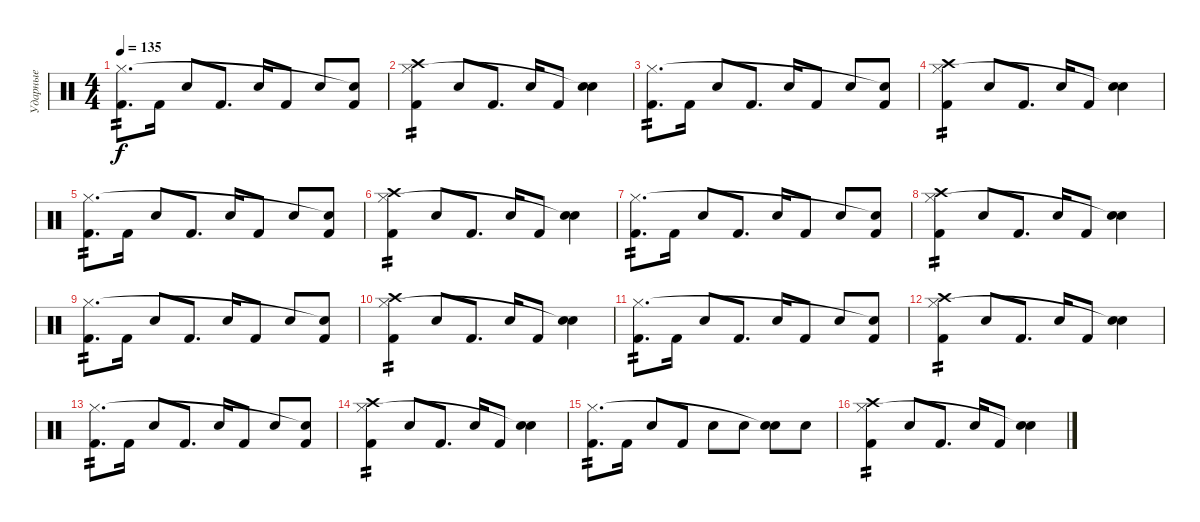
\track ("Ударные" "Ударные") {instrument percussion}
\staff {score}
\articulation defaults
\ts (4 4)
\tempo 135
\clef neutral
\ks c
("Kick (hit) 2" "Hi-Hat (closed)").8{d tp 2 dy f} "Kick (hit) 2".16 "Electric Snare (hit)".8 "Kick (hit) 2".8{d} "Electric Snare (hit)".16 "Kick (hit) 2".8 "Electric Snare (hit)".8 ("Kick (hit) 2" "Snare (hit)"{t}).8 |
("Kick (hit) 2" "Hi-Hat (closed)" "Crash high (hit)").4{tp 2} "Electric Snare (hit)".8 "Kick (hit) 2".8{d} "Electric Snare (hit)".16 "Kick (hit) 2".8 ("Electric Snare (hit)" "Snare (hit)"{t}).4 |
("Kick (hit) 2" "Hi-Hat (closed)").8{d tp 2} "Kick (hit) 2".16 "Electric Snare (hit)".8 "Kick (hit) 2".8{d} "Electric Snare (hit)".16 "Kick (hit) 2".8 "Electric Snare (hit)".8 ("Kick (hit) 2" "Snare (hit)"{t}).8 |
("Kick (hit) 2" "Hi-Hat (closed)" "Crash high (hit)").4{tp 2} "Electric Snare (hit)".8 "Kick (hit) 2".8{d} "Electric Snare (hit)".16 "Kick (hit) 2".8 ("Electric Snare (hit)" "Snare (hit)"{t}).4 |
("Kick (hit) 2" "Hi-Hat (closed)").8{d tp 2} "Kick (hit) 2".16 "Electric Snare (hit)".8 "Kick (hit) 2".8{d} "Electric Snare (hit)".16 "Kick (hit) 2".8 "Electric Snare (hit)".8 ("Kick (hit) 2" "Snare (hit)"{t}).8 |
("Kick (hit) 2" "Hi-Hat (closed)" "Crash high (hit)").4{tp 2} "Electric Snare (hit)".8 "Kick (hit) 2".8{d} "Electric Snare (hit)".16 "Kick (hit) 2".8 ("Electric Snare (hit)" "Snare (hit)"{t}).4 |
("Kick (hit) 2" "Hi-Hat (closed)").8{d tp 2} "Kick (hit) 2".16 "Electric Snare (hit)".8 "Kick (hit) 2".8{d} "Electric Snare (hit)".16 "Kick (hit) 2".8 "Electric Snare (hit)".8 ("Kick (hit) 2" "Snare (hit)"{t}).8 |
("Kick (hit) 2" "Hi-Hat (closed)" "Crash high (hit)").4{tp 2} "Electric Snare (hit)".8 "Kick (hit) 2".8{d} "Electric Snare (hit)".16 "Kick (hit) 2".8 ("Electric Snare (hit)" "Snare (hit)"{t}).4 |
("Kick (hit) 2" "Hi-Hat (closed)").8{d tp 2} "Kick (hit) 2".16 "Electric Snare (hit)".8 "Kick (hit) 2".8{d} "Electric Snare (hit)".16 "Kick (hit) 2".8 "Electric Snare (hit)".8 ("Kick (hit) 2" "Snare (hit)"{t}).8 |
("Kick (hit) 2" "Hi-Hat (closed)" "Crash high (hit)").4{tp 2} "Electric Snare (hit)".8 "Kick (hit) 2".8{d} "Electric Snare (hit)".16 "Kick (hit) 2".8 ("Electric Snare (hit)" "Snare (hit)"{t}).4 |
("Kick (hit) 2" "Hi-Hat (closed)").8{d tp 2} "Kick (hit) 2".16 "Electric Snare (hit)".8 "Kick (hit) 2".8{d} "Electric Snare (hit)".16 "Kick (hit) 2".8 "Electric Snare (hit)".8 ("Kick (hit) 2" "Snare (hit)"{t}).8 |
("Kick (hit) 2" "Hi-Hat (closed)" "Crash high (hit)").4{tp 2} "Electric Snare (hit)".8 "Kick (hit) 2".8{d} "Electric Snare (hit)".16 "Kick (hit) 2".8 ("Electric Snare (hit)" "Snare (hit)"{t}).4 |
("Kick (hit) 2" "Hi-Hat (closed)").8{d tp 2} "Kick (hit) 2".16 "Electric Snare (hit)".8 "Kick (hit) 2".8{d} "Electric Snare (hit)".16 "Kick (hit) 2".8 "Electric Snare (hit)".8 ("Kick (hit) 2" "Snare (hit)"{t}).8 |
("Kick (hit) 2" "Hi-Hat (closed)" "Crash high (hit)").4{tp 2} "Electric Snare (hit)".8 "Kick (hit) 2".8{d} "Electric Snare (hit)".16 "Kick (hit) 2".8 ("Electric Snare (hit)" "Snare (hit)"{t}).4 |
("Kick (hit) 2" "Hi-Hat (closed)").8{d tp 2} "Kick (hit) 2".16 "Electric Snare (hit)".8 "Kick (hit) 2".8 "Electric Snare (hit)".8 "Electric Snare (hit)".8 ("Electric Snare (hit)" "Snare (hit)"{t}).8 "Electric Snare (hit)".8 |
("Kick (hit) 2" "Hi-Hat (closed)" "Crash high (hit)").4{tp 2} "Electric Snare (hit)".8 "Kick (hit) 2".8{d} "Electric Snare (hit)".16 "Kick (hit) 2".8 ("Electric Snare (hit)" "Snare (hit)"{t}).4
